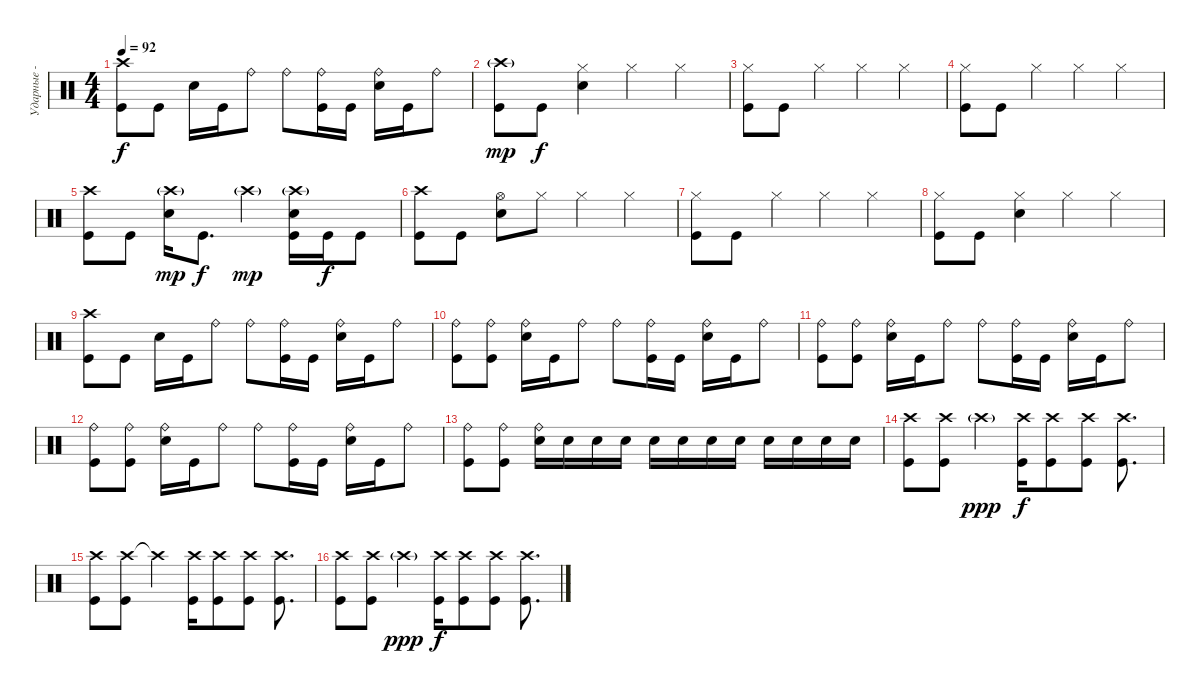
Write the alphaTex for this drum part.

\track ("Ударные - Джек Уайт" "Ударные - ") {instrument percussion}
\staff {score}
\articulation defaults
\ts (4 4)
\tempo 92
\clef neutral
\ks c
("Crash high (hit)" "Kick (hit)").8{dy f} "Kick (hit)".8 "Electric Snare (hit)".16 "Kick (hit)".16 "Ride (bell)".8 "Ride (bell)".8 ("Ride (bell)" "Kick (hit)").16 "Kick (hit)".16 ("Ride (bell)" "Electric Snare (hit)").16 "Kick (hit)".16 "Ride (bell)".8 |
("Crash high (hit)"{g} "Kick (hit)").8{dy mp} "Kick (hit)".8{dy f} ("Hi-Hat (closed)" "Electric Snare (hit)").4 "Hi-Hat (closed)".4 "Hi-Hat (closed)".4 |
("Hi-Hat (closed)" "Kick (hit)").8 "Kick (hit)".8 "Hi-Hat (closed)".4 "Hi-Hat (closed)".4 "Hi-Hat (closed)".4 |
("Hi-Hat (closed)" "Kick (hit)").8 "Kick (hit)".8 "Hi-Hat (closed)".4 "Hi-Hat (closed)".4 "Hi-Hat (closed)".4 |
("Crash high (hit)" "Kick (hit)").8 "Kick (hit)".8 ("Crash high (hit)"{g} "Electric Snare (hit)").16{dy mp} "Kick (hit)".8{d dy f} "Crash high (hit)"{g}.4{dy mp} ("Crash high (hit)"{g} "Electric Snare (hit)" "Kick (hit)").16 "Kick (hit)".16{dy f} "Kick (hit)".8 |
("Crash high (hit)" "Kick (hit)").8 "Kick (hit)".8 ("Hi-Hat (open)" "Electric Snare (hit)").8 "Hi-Hat (closed)".8 "Hi-Hat (closed)".4 "Hi-Hat (closed)".4 |
("Hi-Hat (closed)" "Kick (hit)").8 "Kick (hit)".8 "Hi-Hat (closed)".4 "Hi-Hat (closed)".4 "Hi-Hat (closed)".4 |
("Hi-Hat (closed)" "Kick (hit)").8 "Kick (hit)".8 ("Hi-Hat (closed)" "Electric Snare (hit)").4 "Hi-Hat (closed)".4 "Hi-Hat (closed)".4 |
("Crash high (hit)" "Kick (hit)").8 "Kick (hit)".8 "Electric Snare (hit)".16 "Kick (hit)".16 "Ride (bell)".8 "Ride (bell)".8 ("Ride (bell)" "Kick (hit)").16 "Kick (hit)".16 ("Ride (bell)" "Electric Snare (hit)").16 "Kick (hit)".16 "Ride (bell)".8 |
("Ride (bell)" "Kick (hit)").8 ("Ride (bell)" "Kick (hit)").8 ("Ride (bell)" "Electric Snare (hit)").16 "Kick (hit)".16 "Ride (bell)".8 "Ride (bell)".8 ("Ride (bell)" "Kick (hit)").16 "Kick (hit)".16 ("Ride (bell)" "Electric Snare (hit)").16 "Kick (hit)".16 "Ride (bell)".8 |
("Ride (bell)" "Kick (hit)").8 ("Ride (bell)" "Kick (hit)").8 ("Ride (bell)" "Electric Snare (hit)").16 "Kick (hit)".16 "Ride (bell)".8 "Ride (bell)".8 ("Ride (bell)" "Kick (hit)").16 "Kick (hit)".16 ("Ride (bell)" "Electric Snare (hit)").16 "Kick (hit)".16 "Ride (bell)".8 |
("Ride (bell)" "Kick (hit)").8 ("Ride (bell)" "Kick (hit)").8 ("Ride (bell)" "Electric Snare (hit)").16 "Kick (hit)".16 "Ride (bell)".8 "Ride (bell)".8 ("Ride (bell)" "Kick (hit)").16 "Kick (hit)".16 ("Ride (bell)" "Electric Snare (hit)").16 "Kick (hit)".16 "Ride (bell)".8 |
("Ride (bell)" "Kick (hit)").8 ("Ride (bell)" "Kick (hit)").8 ("Ride (bell)" "Electric Snare (hit)").16 "Snare (hit) 2".16 "Electric Snare (hit)".16 "Snare (hit) 2".16 "Electric Snare (hit)".16 "Snare (hit) 2".16 "Electric Snare (hit)".16 "Electric Snare (hit)".16 "Electric Snare (hit)".16 "Electric Snare (hit)".16 "Electric Snare (hit)".16 "Electric Snare (hit)".16 |
("Crash high (hit)" "Kick (hit)").8 ("Crash high (hit)" "Kick (hit)").8 "Crash high (hit)"{g}.4{dy ppp} ("Crash high (hit)" "Kick (hit)").16{dy f} ("Crash high (hit)" "Kick (hit)").8 ("Crash high (hit)" "Kick (hit)").8 ("Crash high (hit)" "Kick (hit)").8{d} |
("Crash high (hit)" "Kick (hit)").8 ("Crash high (hit)" "Kick (hit)").8 "Crash high (hit)"{t}.4 ("Crash high (hit)" "Kick (hit)").16 ("Crash high (hit)" "Kick (hit)").8 ("Crash high (hit)" "Kick (hit)").8 ("Crash high (hit)" "Kick (hit)").8{d} |
("Crash high (hit)" "Kick (hit)").8 ("Crash high (hit)" "Kick (hit)").8 "Crash high (hit)"{g}.4{dy ppp} ("Crash high (hit)" "Kick (hit)").16{dy f} ("Crash high (hit)" "Kick (hit)").8 ("Crash high (hit)" "Kick (hit)").8 ("Crash high (hit)" "Kick (hit)").8{d}
